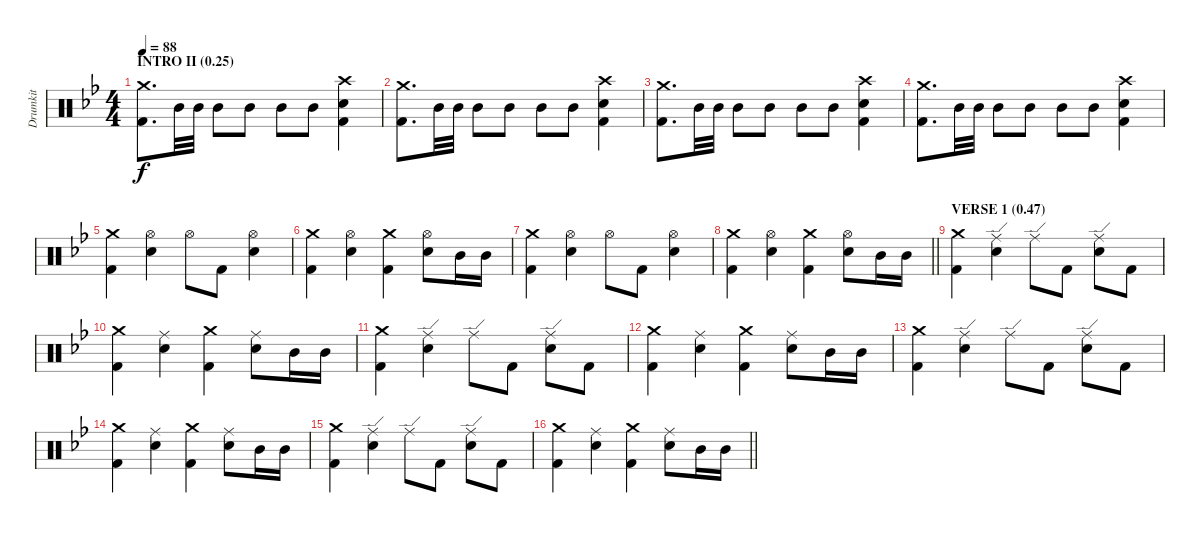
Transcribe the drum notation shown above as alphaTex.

\track ("Drumkit" "Drumkit") {instrument percussion}
\staff {score}
\articulation defaults
\ts (4 4)
\section ("" "INTRO II (0.25)")
\tempo 88
\clef neutral
\ks bb
("Kick (hit) 2" "Crash medium (hit)").8{d dy f} "Mid Tom (hit)".32 "Mid Tom (hit)".32 "Mid Tom (hit)".8 "Mid Tom (hit)".8 "Mid Tom (hit)".8 "Mid Tom (hit)".8 ("Kick (hit) 2" "Snare (hit) 2" "Crash high (hit)").4 |
("Kick (hit) 2" "Crash medium (hit)").8{d} "Mid Tom (hit)".32 "Mid Tom (hit)".32 "Mid Tom (hit)".8 "Mid Tom (hit)".8 "Mid Tom (hit)".8 "Mid Tom (hit)".8 ("Kick (hit) 2" "Snare (hit) 2" "Crash high (hit)").4 |
("Kick (hit) 2" "Crash medium (hit)").8{d} "Mid Tom (hit)".32 "Mid Tom (hit)".32 "Mid Tom (hit)".8 "Mid Tom (hit)".8 "Mid Tom (hit)".8 "Mid Tom (hit)".8 ("Kick (hit) 2" "Snare (hit) 2" "Crash high (hit)").4 |
("Kick (hit) 2" "Crash medium (hit)").8{d} "Mid Tom (hit)".32 "Mid Tom (hit)".32 "Mid Tom (hit)".8 "Mid Tom (hit)".8 "Mid Tom (hit)".8 "Mid Tom (hit)".8 ("Kick (hit) 2" "Snare (hit) 2" "Crash high (hit)").4 |
("Kick (hit) 2" "Crash medium (hit)").4 ("Snare (hit) 2" "Hi-Hat (open)").4 "Hi-Hat (open)".8 "Kick (hit) 2".8 ("Snare (hit) 2" "Hi-Hat (open)").4 |
("Kick (hit) 2" "Crash medium (hit)").4 ("Snare (hit) 2" "Hi-Hat (open)").4 ("Kick (hit) 2" "Crash medium (hit)").4 ("Snare (hit) 2" "Hi-Hat (open)").8 "Mid Tom (hit)".16 "Mid Tom (hit)".16 |
("Kick (hit) 2" "Crash medium (hit)").4 ("Snare (hit) 2" "Hi-Hat (open)").4 "Hi-Hat (open)".8 "Kick (hit) 2".8 ("Snare (hit) 2" "Hi-Hat (open)").4 |
\barLineRight lightlight
("Kick (hit) 2" "Crash medium (hit)").4 ("Snare (hit) 2" "Hi-Hat (open)").4 ("Kick (hit) 2" "Crash medium (hit)").4 ("Snare (hit) 2" "Hi-Hat (open)").8 "Mid Tom (hit)".16 "Mid Tom (hit)".16 |
\section ("" "VERSE 1 (0.47)")
("Kick (hit) 2" "Crash medium (hit)").4 ("Snare (hit) 2" "Ride (edge)").4 "Ride (edge)".8 "Kick (hit) 2".8 ("Snare (hit) 2" "Ride (edge)").8 "Kick (hit) 2".8 |
("Kick (hit) 2" "Crash medium (hit)").4 ("Snare (hit) 2" "Ride (middle)").4 ("Kick (hit) 2" "Crash medium (hit)").4 ("Snare (hit) 2" "Ride (middle)").8 "Mid Tom (hit)".16 "Mid Tom (hit)".16 |
("Kick (hit) 2" "Crash medium (hit)").4 ("Snare (hit) 2" "Ride (edge)").4 "Ride (edge)".8 "Kick (hit) 2".8 ("Snare (hit) 2" "Ride (edge)").8 "Kick (hit) 2".8 |
("Kick (hit) 2" "Crash medium (hit)").4 ("Snare (hit) 2" "Ride (middle)").4 ("Kick (hit) 2" "Crash medium (hit)").4 ("Snare (hit) 2" "Ride (middle)").8 "Mid Tom (hit)".16 "Mid Tom (hit)".16 |
("Kick (hit) 2" "Crash medium (hit)").4 ("Snare (hit) 2" "Ride (edge)").4 "Ride (edge)".8 "Kick (hit) 2".8 ("Snare (hit) 2" "Ride (edge)").8 "Kick (hit) 2".8 |
("Kick (hit) 2" "Crash medium (hit)").4 ("Snare (hit) 2" "Ride (middle)").4 ("Kick (hit) 2" "Crash medium (hit)").4 ("Snare (hit) 2" "Ride (middle)").8 "Mid Tom (hit)".16 "Mid Tom (hit)".16 |
("Kick (hit) 2" "Crash medium (hit)").4 ("Snare (hit) 2" "Ride (edge)").4 "Ride (edge)".8 "Kick (hit) 2".8 ("Snare (hit) 2" "Ride (edge)").8 "Kick (hit) 2".8 |
\barLineRight lightlight
("Kick (hit) 2" "Crash medium (hit)").4 ("Snare (hit) 2" "Ride (middle)").4 ("Kick (hit) 2" "Crash medium (hit)").4 ("Snare (hit) 2" "Ride (middle)").8 "Mid Tom (hit)".16 "Mid Tom (hit)".16
